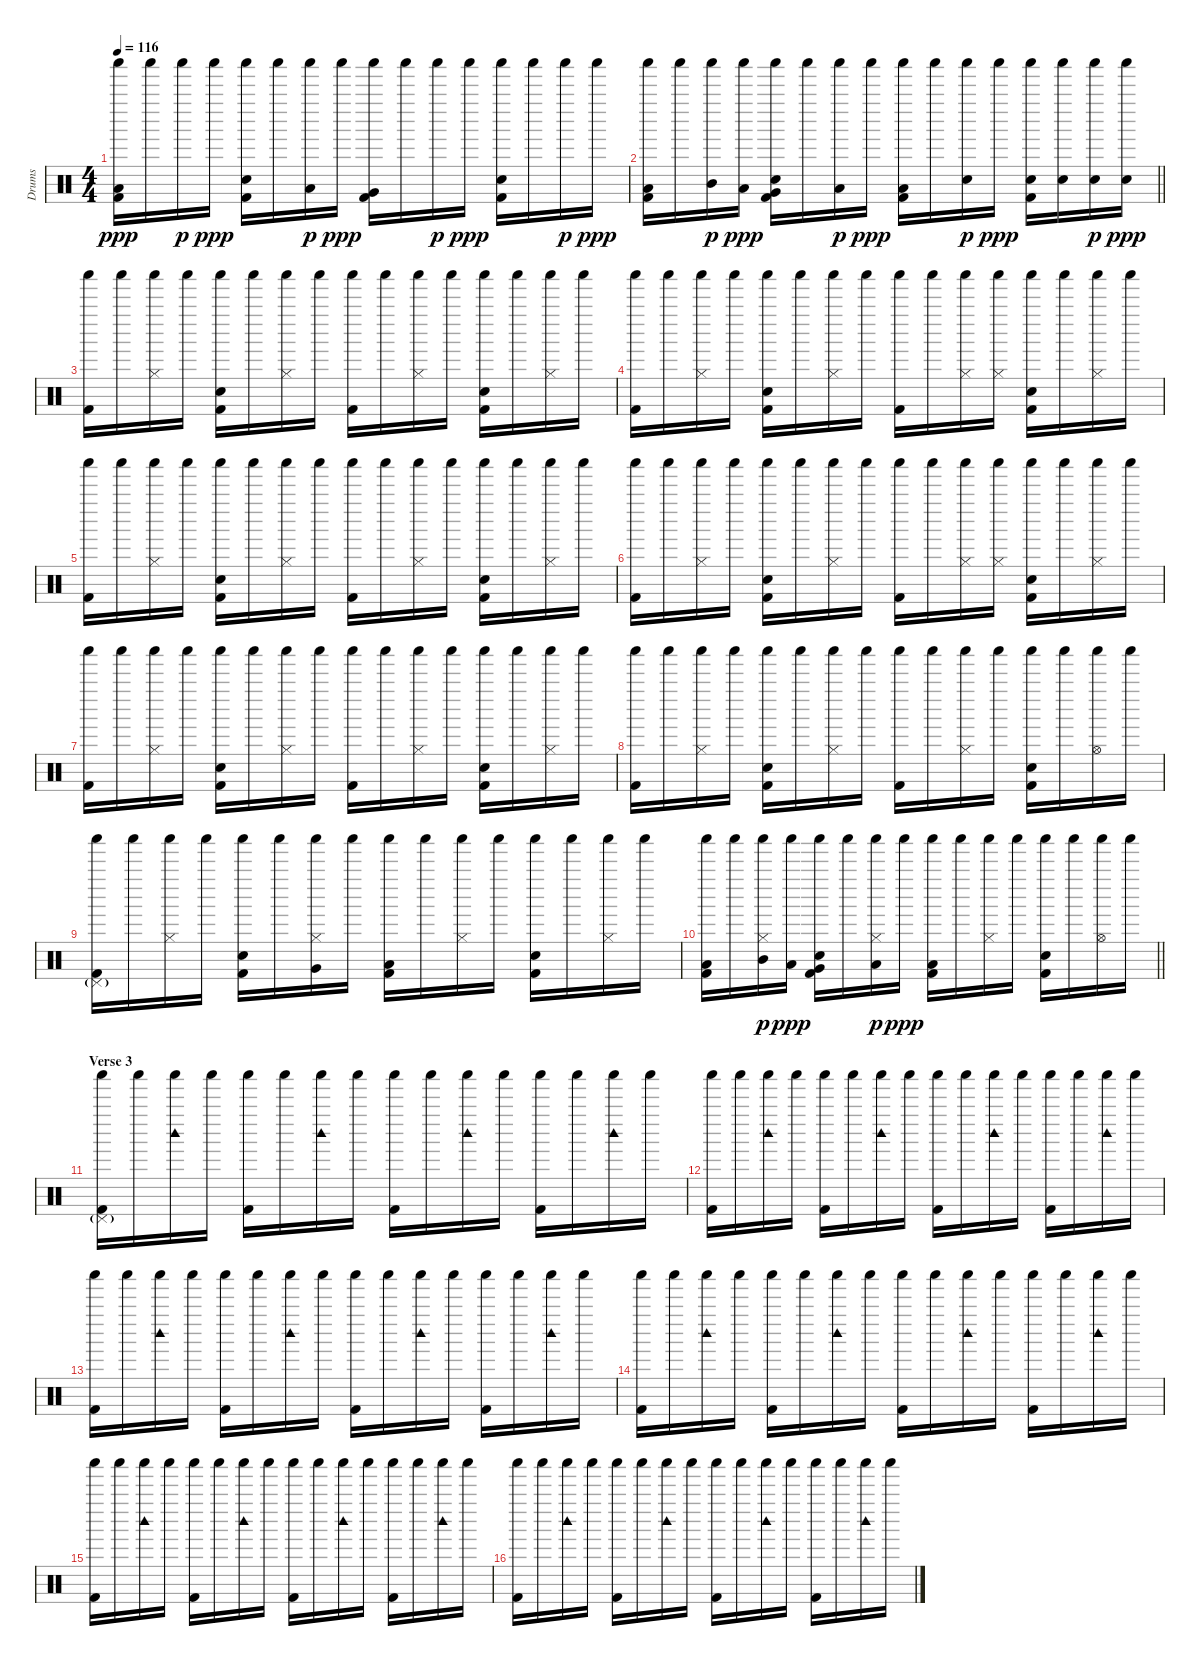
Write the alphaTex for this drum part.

\track ("Drums" "Drums") {mute instrument percussion}
\staff {score}
\articulation defaults
\ts (4 4)
\tempo 116
\clef neutral
\ks c
("Low Tom (hit)" "Shaker (hit)" "Kick (hit) 2").16{dy ppp} "Shaker (hit)".16 "Shaker (hit)".16{dy p} "Shaker (hit)".16{dy ppp} ("Shaker (hit)" "Snare (hit) 2" "Kick (hit) 2").16 "Shaker (hit)".16 ("Low Floor Tom (hit)" "Shaker (hit)").16{dy p} "Shaker (hit)".16{dy ppp} ("Very Low Tom (hit)" "Shaker (hit)" "Kick (hit) 2").16 "Shaker (hit)".16 "Shaker (hit)".16{dy p} "Shaker (hit)".16{dy ppp} ("Shaker (hit)" "Snare (hit) 2" "Kick (hit) 2").16 "Shaker (hit)".16 "Shaker (hit)".16{dy p} "Shaker (hit)".16{dy ppp} |
\barLineRight lightlight
("Low Floor Tom (hit)" "Shaker (hit)" "Kick (hit) 2").16 "Shaker (hit)".16 ("Mid Tom (hit)" "Shaker (hit)").16{dy p} ("Low Tom (hit)" "Shaker (hit)").16{dy ppp} ("Very Low Tom (hit)" "Shaker (hit)" "Snare (hit) 2" "Kick (hit) 2").16 "Shaker (hit)".16 ("Low Floor Tom (hit)" "Shaker (hit)").16{dy p} "Shaker (hit)".16{dy ppp} ("Low Floor Tom (hit)" "Shaker (hit)" "Kick (hit) 2").16 "Shaker (hit)".16 ("Shaker (hit)" "Snare (hit) 2").16{dy p} "Shaker (hit)".16{dy ppp} ("Shaker (hit)" "Snare (hit) 2" "Kick (hit) 2").16 ("Shaker (hit)" "Snare (hit) 2").16 ("Shaker (hit)" "Snare (hit) 2").16{dy p} ("Shaker (hit)" "Snare (hit) 2").16{dy ppp} |
("Shaker (hit)" "Kick (hit) 2").16 "Shaker (hit)".16 ("Hi-Hat (closed)" "Shaker (hit)").16 "Shaker (hit)".16 ("Shaker (hit)" "Snare (hit) 2" "Kick (hit) 2").16 "Shaker (hit)".16 ("Hi-Hat (closed)" "Shaker (hit)").16 "Shaker (hit)".16 ("Shaker (hit)" "Kick (hit) 2").16 "Shaker (hit)".16 ("Hi-Hat (closed)" "Shaker (hit)").16 "Shaker (hit)".16 ("Shaker (hit)" "Snare (hit) 2" "Kick (hit) 2").16 "Shaker (hit)".16 ("Hi-Hat (closed)" "Shaker (hit)").16 "Shaker (hit)".16 |
("Shaker (hit)" "Kick (hit) 2").16 "Shaker (hit)".16 ("Hi-Hat (closed)" "Shaker (hit)").16 "Shaker (hit)".16 ("Shaker (hit)" "Snare (hit) 2" "Kick (hit) 2").16 "Shaker (hit)".16 ("Hi-Hat (closed)" "Shaker (hit)").16 "Shaker (hit)".16 ("Shaker (hit)" "Kick (hit) 2").16 "Shaker (hit)".16 ("Hi-Hat (closed)" "Shaker (hit)").16 ("Hi-Hat (closed)" "Shaker (hit)").16 ("Shaker (hit)" "Snare (hit) 2" "Kick (hit) 2").16 "Shaker (hit)".16 ("Hi-Hat (closed)" "Shaker (hit)").16 "Shaker (hit)".16 |
("Shaker (hit)" "Kick (hit) 2").16 "Shaker (hit)".16 ("Hi-Hat (closed)" "Shaker (hit)").16 "Shaker (hit)".16 ("Shaker (hit)" "Snare (hit) 2" "Kick (hit) 2").16 "Shaker (hit)".16 ("Hi-Hat (closed)" "Shaker (hit)").16 "Shaker (hit)".16 ("Shaker (hit)" "Kick (hit) 2").16 "Shaker (hit)".16 ("Hi-Hat (closed)" "Shaker (hit)").16 "Shaker (hit)".16 ("Shaker (hit)" "Snare (hit) 2" "Kick (hit) 2").16 "Shaker (hit)".16 ("Hi-Hat (closed)" "Shaker (hit)").16 "Shaker (hit)".16 |
("Shaker (hit)" "Kick (hit) 2").16 "Shaker (hit)".16 ("Hi-Hat (closed)" "Shaker (hit)").16 "Shaker (hit)".16 ("Shaker (hit)" "Snare (hit) 2" "Kick (hit) 2").16 "Shaker (hit)".16 ("Hi-Hat (closed)" "Shaker (hit)").16 "Shaker (hit)".16 ("Shaker (hit)" "Kick (hit) 2").16 "Shaker (hit)".16 ("Hi-Hat (closed)" "Shaker (hit)").16 ("Hi-Hat (closed)" "Shaker (hit)").16 ("Shaker (hit)" "Snare (hit) 2" "Kick (hit) 2").16 "Shaker (hit)".16 ("Hi-Hat (closed)" "Shaker (hit)").16 "Shaker (hit)".16 |
("Shaker (hit)" "Kick (hit) 2").16 "Shaker (hit)".16 ("Hi-Hat (closed)" "Shaker (hit)").16 "Shaker (hit)".16 ("Shaker (hit)" "Snare (hit) 2" "Kick (hit) 2").16 "Shaker (hit)".16 ("Hi-Hat (closed)" "Shaker (hit)").16 "Shaker (hit)".16 ("Shaker (hit)" "Kick (hit) 2").16 "Shaker (hit)".16 ("Hi-Hat (closed)" "Shaker (hit)").16 "Shaker (hit)".16 ("Shaker (hit)" "Snare (hit) 2" "Kick (hit) 2").16 "Shaker (hit)".16 ("Hi-Hat (closed)" "Shaker (hit)").16 "Shaker (hit)".16 |
("Shaker (hit)" "Kick (hit) 2").16 "Shaker (hit)".16 ("Hi-Hat (closed)" "Shaker (hit)").16 "Shaker (hit)".16 ("Shaker (hit)" "Snare (hit) 2" "Kick (hit) 2").16 "Shaker (hit)".16 ("Hi-Hat (closed)" "Shaker (hit)").16 "Shaker (hit)".16 ("Shaker (hit)" "Kick (hit) 2").16 "Shaker (hit)".16 ("Hi-Hat (closed)" "Shaker (hit)").16 "Shaker (hit)".16 ("Shaker (hit)" "Snare (hit) 2" "Kick (hit) 2").16 "Shaker (hit)".16 ("Hi-Hat (open)" "Shaker (hit)").16 "Shaker (hit)".16 |
("Pedal Hi-Hat (hit)"{g} "Shaker (hit)" "Kick (hit) 2").16 "Shaker (hit)".16 ("Hi-Hat (closed)" "Shaker (hit)").16 "Shaker (hit)".16 ("Shaker (hit)" "Snare (hit) 2" "Kick (hit) 2").16 "Shaker (hit)".16 ("Very Low Tom (hit)" "Hi-Hat (closed)" "Shaker (hit)").16 "Shaker (hit)".16 ("Low Floor Tom (hit)" "Shaker (hit)" "Kick (hit) 2").16 "Shaker (hit)".16 ("Hi-Hat (closed)" "Shaker (hit)").16 "Shaker (hit)".16 ("Shaker (hit)" "Snare (hit) 2" "Kick (hit) 2").16 "Shaker (hit)".16 ("Hi-Hat (closed)" "Shaker (hit)").16 "Shaker (hit)".16 |
\barLineRight lightlight
("Low Floor Tom (hit)" "Shaker (hit)" "Kick (hit) 2").16 "Shaker (hit)".16 ("Hi-Hat (closed)" "Mid Tom (hit)" "Shaker (hit)").16{dy p} ("Low Tom (hit)" "Shaker (hit)").16{dy ppp} ("Very Low Tom (hit)" "Shaker (hit)" "Snare (hit) 2" "Kick (hit) 2").16 "Shaker (hit)".16 ("Hi-Hat (closed)" "Low Floor Tom (hit)" "Shaker (hit)").16{dy p} "Shaker (hit)".16{dy ppp} ("Low Floor Tom (hit)" "Shaker (hit)" "Kick (hit) 2").16 "Shaker (hit)".16 ("Hi-Hat (closed)" "Shaker (hit)").16 "Shaker (hit)".16 ("Shaker (hit)" "Snare (hit) 2" "Kick (hit) 2").16 "Shaker (hit)".16 ("Hi-Hat (open)" "Shaker (hit)").16 "Shaker (hit)".16 |
\section ("" "Verse 3")
("Pedal Hi-Hat (hit)"{g} "Shaker (hit)" "Kick (hit) 2").16 "Shaker (hit)".16 ("Woodblock high (hit)" "Shaker (hit)").16 "Shaker (hit)".16 ("Shaker (hit)" "Kick (hit) 2").16 "Shaker (hit)".16 ("Woodblock high (hit)" "Shaker (hit)").16 "Shaker (hit)".16 ("Shaker (hit)" "Kick (hit) 2").16 "Shaker (hit)".16 ("Woodblock high (hit)" "Shaker (hit)").16 "Shaker (hit)".16 ("Shaker (hit)" "Kick (hit) 2").16 "Shaker (hit)".16 ("Woodblock high (hit)" "Shaker (hit)").16 "Shaker (hit)".16 |
("Shaker (hit)" "Kick (hit) 2").16 "Shaker (hit)".16 ("Woodblock high (hit)" "Shaker (hit)").16 "Shaker (hit)".16 ("Shaker (hit)" "Kick (hit) 2").16 "Shaker (hit)".16 ("Woodblock high (hit)" "Shaker (hit)").16 "Shaker (hit)".16 ("Shaker (hit)" "Kick (hit) 2").16 "Shaker (hit)".16 ("Woodblock high (hit)" "Shaker (hit)").16 "Shaker (hit)".16 ("Shaker (hit)" "Kick (hit) 2").16 "Shaker (hit)".16 ("Woodblock high (hit)" "Shaker (hit)").16 "Shaker (hit)".16 |
("Shaker (hit)" "Kick (hit) 2").16 "Shaker (hit)".16 ("Woodblock high (hit)" "Shaker (hit)").16 "Shaker (hit)".16 ("Shaker (hit)" "Kick (hit) 2").16 "Shaker (hit)".16 ("Woodblock high (hit)" "Shaker (hit)").16 "Shaker (hit)".16 ("Shaker (hit)" "Kick (hit) 2").16 "Shaker (hit)".16 ("Woodblock high (hit)" "Shaker (hit)").16 "Shaker (hit)".16 ("Shaker (hit)" "Kick (hit) 2").16 "Shaker (hit)".16 ("Woodblock high (hit)" "Shaker (hit)").16 "Shaker (hit)".16 |
("Shaker (hit)" "Kick (hit) 2").16 "Shaker (hit)".16 ("Woodblock high (hit)" "Shaker (hit)").16 "Shaker (hit)".16 ("Shaker (hit)" "Kick (hit) 2").16 "Shaker (hit)".16 ("Woodblock high (hit)" "Shaker (hit)").16 "Shaker (hit)".16 ("Shaker (hit)" "Kick (hit) 2").16 "Shaker (hit)".16 ("Woodblock high (hit)" "Shaker (hit)").16 "Shaker (hit)".16 ("Shaker (hit)" "Kick (hit) 2").16 "Shaker (hit)".16 ("Woodblock high (hit)" "Shaker (hit)").16 "Shaker (hit)".16 |
("Shaker (hit)" "Kick (hit) 2").16 "Shaker (hit)".16 ("Woodblock high (hit)" "Shaker (hit)").16 "Shaker (hit)".16 ("Shaker (hit)" "Kick (hit) 2").16 "Shaker (hit)".16 ("Woodblock high (hit)" "Shaker (hit)").16 "Shaker (hit)".16 ("Shaker (hit)" "Kick (hit) 2").16 "Shaker (hit)".16 ("Woodblock high (hit)" "Shaker (hit)").16 "Shaker (hit)".16 ("Shaker (hit)" "Kick (hit) 2").16 "Shaker (hit)".16 ("Woodblock high (hit)" "Shaker (hit)").16 "Shaker (hit)".16 |
("Shaker (hit)" "Kick (hit) 2").16 "Shaker (hit)".16 ("Woodblock high (hit)" "Shaker (hit)").16 "Shaker (hit)".16 ("Shaker (hit)" "Kick (hit) 2").16 "Shaker (hit)".16 ("Woodblock high (hit)" "Shaker (hit)").16 "Shaker (hit)".16 ("Shaker (hit)" "Kick (hit) 2").16 "Shaker (hit)".16 ("Woodblock high (hit)" "Shaker (hit)").16 "Shaker (hit)".16 ("Shaker (hit)" "Kick (hit) 2").16 "Shaker (hit)".16 ("Woodblock high (hit)" "Shaker (hit)").16 "Shaker (hit)".16
